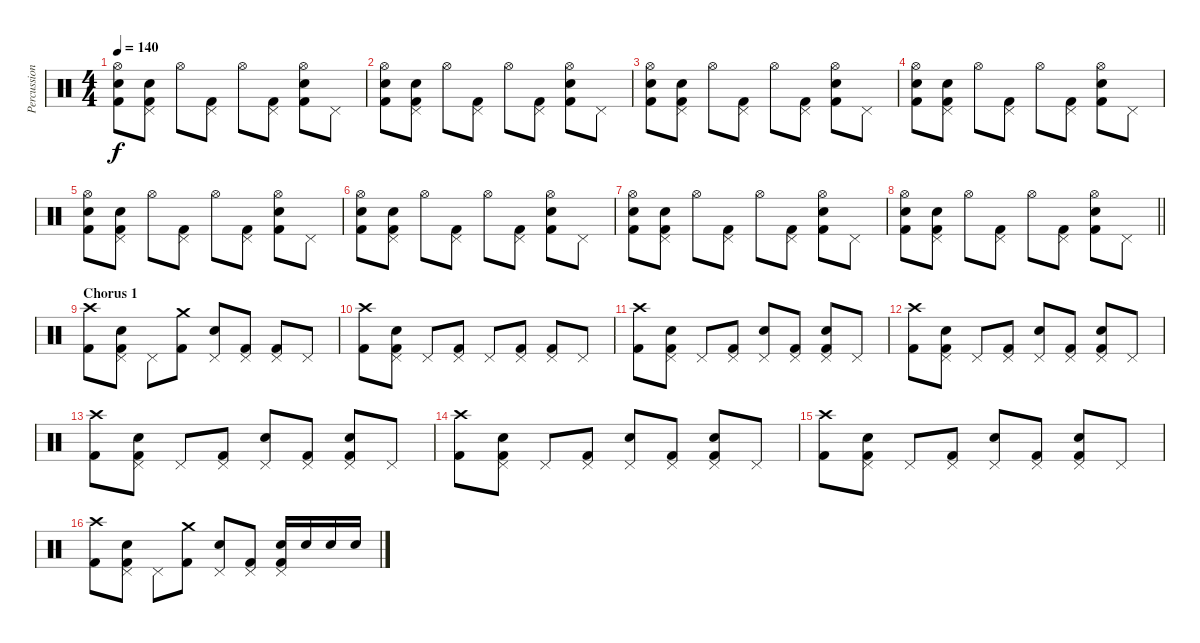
\track ("Percussion" "Percussion") {instrument percussion}
\staff {score}
\articulation defaults
\ts (4 4)
\tempo 140
\clef neutral
\ks c
("Hi-Hat (open)" "Electric Snare (hit)" "Kick (hit) 2").8{dy f} ("Pedal Hi-Hat (hit)" "Electric Snare (hit)" "Kick (hit) 2").8 "Hi-Hat (open)".8 ("Pedal Hi-Hat (hit)" "Kick (hit) 2").8 "Hi-Hat (open)".8 ("Pedal Hi-Hat (hit)" "Kick (hit) 2").8 ("Hi-Hat (open)" "Electric Snare (hit)" "Kick (hit) 2").8 "Pedal Hi-Hat (hit)".8 |
("Hi-Hat (open)" "Electric Snare (hit)" "Kick (hit) 2").8 ("Pedal Hi-Hat (hit)" "Electric Snare (hit)" "Kick (hit) 2").8 "Hi-Hat (open)".8 ("Pedal Hi-Hat (hit)" "Kick (hit) 2").8 "Hi-Hat (open)".8 ("Pedal Hi-Hat (hit)" "Kick (hit) 2").8 ("Hi-Hat (open)" "Electric Snare (hit)" "Kick (hit) 2").8 "Pedal Hi-Hat (hit)".8 |
("Hi-Hat (open)" "Electric Snare (hit)" "Kick (hit) 2").8 ("Pedal Hi-Hat (hit)" "Electric Snare (hit)" "Kick (hit) 2").8 "Hi-Hat (open)".8 ("Pedal Hi-Hat (hit)" "Kick (hit) 2").8 "Hi-Hat (open)".8 ("Pedal Hi-Hat (hit)" "Kick (hit) 2").8 ("Hi-Hat (open)" "Electric Snare (hit)" "Kick (hit) 2").8 "Pedal Hi-Hat (hit)".8 |
("Hi-Hat (open)" "Electric Snare (hit)" "Kick (hit) 2").8 ("Pedal Hi-Hat (hit)" "Electric Snare (hit)" "Kick (hit) 2").8 "Hi-Hat (open)".8 ("Pedal Hi-Hat (hit)" "Kick (hit) 2").8 "Hi-Hat (open)".8 ("Pedal Hi-Hat (hit)" "Kick (hit) 2").8 ("Hi-Hat (open)" "Electric Snare (hit)" "Kick (hit) 2").8 "Pedal Hi-Hat (hit)".8 |
("Hi-Hat (open)" "Electric Snare (hit)" "Kick (hit) 2").8 ("Pedal Hi-Hat (hit)" "Electric Snare (hit)" "Kick (hit) 2").8 "Hi-Hat (open)".8 ("Pedal Hi-Hat (hit)" "Kick (hit) 2").8 "Hi-Hat (open)".8 ("Pedal Hi-Hat (hit)" "Kick (hit) 2").8 ("Hi-Hat (open)" "Electric Snare (hit)" "Kick (hit) 2").8 "Pedal Hi-Hat (hit)".8 |
("Hi-Hat (open)" "Electric Snare (hit)" "Kick (hit) 2").8 ("Pedal Hi-Hat (hit)" "Electric Snare (hit)" "Kick (hit) 2").8 "Hi-Hat (open)".8 ("Pedal Hi-Hat (hit)" "Kick (hit) 2").8 "Hi-Hat (open)".8 ("Pedal Hi-Hat (hit)" "Kick (hit) 2").8 ("Hi-Hat (open)" "Electric Snare (hit)" "Kick (hit) 2").8 "Pedal Hi-Hat (hit)".8 |
("Hi-Hat (open)" "Electric Snare (hit)" "Kick (hit) 2").8 ("Pedal Hi-Hat (hit)" "Electric Snare (hit)" "Kick (hit) 2").8 "Hi-Hat (open)".8 ("Pedal Hi-Hat (hit)" "Kick (hit) 2").8 "Hi-Hat (open)".8 ("Pedal Hi-Hat (hit)" "Kick (hit) 2").8 ("Hi-Hat (open)" "Electric Snare (hit)" "Kick (hit) 2").8 "Pedal Hi-Hat (hit)".8 |
\barLineRight lightlight
("Hi-Hat (open)" "Electric Snare (hit)" "Kick (hit) 2").8 ("Pedal Hi-Hat (hit)" "Electric Snare (hit)" "Kick (hit) 2").8 "Hi-Hat (open)".8 ("Pedal Hi-Hat (hit)" "Kick (hit) 2").8 "Hi-Hat (open)".8 ("Pedal Hi-Hat (hit)" "Kick (hit) 2").8 ("Hi-Hat (open)" "Electric Snare (hit)" "Kick (hit) 2").8 "Pedal Hi-Hat (hit)".8 |
\section ("" "Chorus 1")
("Crash high (hit)" "Kick (hit) 2").8 ("Pedal Hi-Hat (hit)" "Electric Snare (hit)" "Kick (hit) 2").8 "Pedal Hi-Hat (hit)".8 ("Crash medium (hit)" "Kick (hit) 2").8 ("Pedal Hi-Hat (hit)" "Electric Snare (hit)").8 ("Pedal Hi-Hat (hit)" "Kick (hit) 2").8 ("Pedal Hi-Hat (hit)" "Kick (hit) 2").8 "Pedal Hi-Hat (hit)".8 |
("Crash high (hit)" "Kick (hit) 2").8 ("Pedal Hi-Hat (hit)" "Electric Snare (hit)" "Kick (hit) 2").8 "Pedal Hi-Hat (hit)".8 ("Pedal Hi-Hat (hit)" "Kick (hit) 2").8 "Pedal Hi-Hat (hit)".8 ("Pedal Hi-Hat (hit)" "Kick (hit) 2").8 ("Pedal Hi-Hat (hit)" "Kick (hit) 2").8 "Pedal Hi-Hat (hit)".8 |
("Crash high (hit)" "Kick (hit) 2").8 ("Pedal Hi-Hat (hit)" "Electric Snare (hit)" "Kick (hit) 2").8 "Pedal Hi-Hat (hit)".8 ("Pedal Hi-Hat (hit)" "Kick (hit) 2").8 ("Pedal Hi-Hat (hit)" "Electric Snare (hit)").8 ("Pedal Hi-Hat (hit)" "Kick (hit) 2").8 ("Pedal Hi-Hat (hit)" "Electric Snare (hit)" "Kick (hit) 2").8 "Pedal Hi-Hat (hit)".8 |
("Crash high (hit)" "Kick (hit) 2").8 ("Pedal Hi-Hat (hit)" "Electric Snare (hit)" "Kick (hit) 2").8 "Pedal Hi-Hat (hit)".8 ("Pedal Hi-Hat (hit)" "Kick (hit) 2").8 ("Pedal Hi-Hat (hit)" "Electric Snare (hit)").8 ("Pedal Hi-Hat (hit)" "Kick (hit) 2").8 ("Pedal Hi-Hat (hit)" "Electric Snare (hit)" "Kick (hit) 2").8 "Pedal Hi-Hat (hit)".8 |
("Crash high (hit)" "Kick (hit) 2").8 ("Pedal Hi-Hat (hit)" "Electric Snare (hit)" "Kick (hit) 2").8 "Pedal Hi-Hat (hit)".8 ("Pedal Hi-Hat (hit)" "Kick (hit) 2").8 ("Pedal Hi-Hat (hit)" "Electric Snare (hit)").8 ("Pedal Hi-Hat (hit)" "Kick (hit) 2").8 ("Pedal Hi-Hat (hit)" "Electric Snare (hit)" "Kick (hit) 2").8 "Pedal Hi-Hat (hit)".8 |
("Crash high (hit)" "Kick (hit) 2").8 ("Pedal Hi-Hat (hit)" "Electric Snare (hit)" "Kick (hit) 2").8 "Pedal Hi-Hat (hit)".8 ("Pedal Hi-Hat (hit)" "Kick (hit) 2").8 ("Pedal Hi-Hat (hit)" "Electric Snare (hit)").8 ("Pedal Hi-Hat (hit)" "Kick (hit) 2").8 ("Pedal Hi-Hat (hit)" "Electric Snare (hit)" "Kick (hit) 2").8 "Pedal Hi-Hat (hit)".8 |
("Crash high (hit)" "Kick (hit) 2").8 ("Pedal Hi-Hat (hit)" "Electric Snare (hit)" "Kick (hit) 2").8 "Pedal Hi-Hat (hit)".8 ("Pedal Hi-Hat (hit)" "Kick (hit) 2").8 ("Pedal Hi-Hat (hit)" "Electric Snare (hit)").8 ("Pedal Hi-Hat (hit)" "Kick (hit) 2").8 ("Pedal Hi-Hat (hit)" "Electric Snare (hit)" "Kick (hit) 2").8 "Pedal Hi-Hat (hit)".8 |
("Crash high (hit)" "Kick (hit) 2").8 ("Pedal Hi-Hat (hit)" "Electric Snare (hit)" "Kick (hit) 2").8 "Pedal Hi-Hat (hit)".8 ("Crash medium (hit)" "Kick (hit) 2").8 ("Pedal Hi-Hat (hit)" "Electric Snare (hit)").8 ("Pedal Hi-Hat (hit)" "Kick (hit) 2").8 ("Pedal Hi-Hat (hit)" "Electric Snare (hit)" "Kick (hit) 2").16 "Electric Snare (hit)".16 "Electric Snare (hit)".16 "Electric Snare (hit)".16
